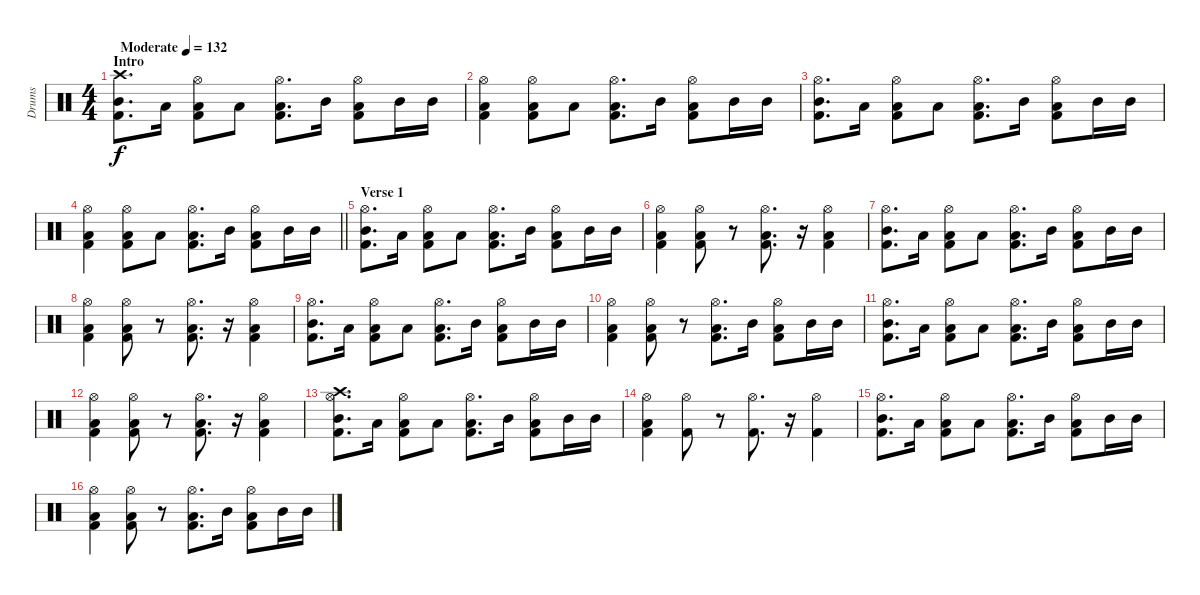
\track ("Drums" "Drums") {instrument percussion}
\staff {score}
\articulation defaults
\ts (4 4)
\section ("" "Intro")
\tempo (132 "Moderate")
\clef neutral
\ks c
("Crash high (hit)" "Mid Tom (hit)" "Kick (hit) 2").8{d dy f} "Low Tom (hit)".16 ("Hi-Hat (open)" "Low Tom (hit)" "Kick (hit) 2").8 "Low Tom (hit)".8 ("Hi-Hat (open)" "Low Tom (hit)" "Kick (hit) 2").8{d} "Mid Tom (hit)".16 ("Hi-Hat (open)" "Low Tom (hit)" "Kick (hit) 2").8 "Mid Tom (hit)".16 "Mid Tom (hit)".16 |
("Hi-Hat (open)" "Low Tom (hit)" "Kick (hit) 2").4 ("Hi-Hat (open)" "Low Tom (hit)" "Kick (hit) 2").8 "Low Tom (hit)".8 ("Hi-Hat (open)" "Low Tom (hit)" "Kick (hit) 2").8{d} "Mid Tom (hit)".16 ("Hi-Hat (open)" "Low Tom (hit)" "Kick (hit) 2").8 "Mid Tom (hit)".16 "Mid Tom (hit)".16 |
("Hi-Hat (open)" "Mid Tom (hit)" "Kick (hit) 2").8{d} "Low Tom (hit)".16 ("Hi-Hat (open)" "Low Tom (hit)" "Kick (hit) 2").8 "Low Tom (hit)".8 ("Hi-Hat (open)" "Low Tom (hit)" "Kick (hit) 2").8{d} "Mid Tom (hit)".16 ("Hi-Hat (open)" "Low Tom (hit)" "Kick (hit) 2").8 "Mid Tom (hit)".16 "Mid Tom (hit)".16 |
\barLineRight lightlight
("Hi-Hat (open)" "Low Tom (hit)" "Kick (hit) 2").4 ("Hi-Hat (open)" "Low Tom (hit)" "Kick (hit) 2").8 "Low Tom (hit)".8 ("Hi-Hat (open)" "Low Tom (hit)" "Kick (hit) 2").8{d} "Mid Tom (hit)".16 ("Hi-Hat (open)" "Low Tom (hit)" "Kick (hit) 2").8 "Mid Tom (hit)".16 "Mid Tom (hit)".16 |
\section ("" "Verse 1")
("Hi-Hat (open)" "Mid Tom (hit)" "Kick (hit) 2").8{d} "Low Tom (hit)".16 ("Hi-Hat (open)" "Low Tom (hit)" "Kick (hit) 2").8 "Low Tom (hit)".8 ("Hi-Hat (open)" "Low Tom (hit)" "Kick (hit) 2").8{d} "Mid Tom (hit)".16 ("Hi-Hat (open)" "Low Tom (hit)" "Kick (hit) 2").8 "Mid Tom (hit)".16 "Mid Tom (hit)".16 |
("Hi-Hat (open)" "Low Tom (hit)" "Kick (hit) 2").4 ("Hi-Hat (open)" "Low Tom (hit)" "Kick (hit) 2").8 r.8 ("Hi-Hat (open)" "Low Tom (hit)" "Kick (hit) 2").8{d} r.16 ("Hi-Hat (open)" "Low Tom (hit)" "Kick (hit) 2").4 |
("Hi-Hat (open)" "Mid Tom (hit)" "Kick (hit) 2").8{d} "Low Tom (hit)".16 ("Hi-Hat (open)" "Low Tom (hit)" "Kick (hit) 2").8 "Low Tom (hit)".8 ("Hi-Hat (open)" "Low Tom (hit)" "Kick (hit) 2").8{d} "Mid Tom (hit)".16 ("Hi-Hat (open)" "Low Tom (hit)" "Kick (hit) 2").8 "Mid Tom (hit)".16 "Mid Tom (hit)".16 |
("Hi-Hat (open)" "Low Tom (hit)" "Kick (hit) 2").4 ("Hi-Hat (open)" "Low Tom (hit)" "Kick (hit) 2").8 r.8 ("Hi-Hat (open)" "Low Tom (hit)" "Kick (hit) 2").8{d} r.16 ("Hi-Hat (open)" "Low Tom (hit)" "Kick (hit) 2").4 |
("Hi-Hat (open)" "Mid Tom (hit)" "Kick (hit) 2").8{d} "Low Tom (hit)".16 ("Hi-Hat (open)" "Low Tom (hit)" "Kick (hit) 2").8 "Low Tom (hit)".8 ("Hi-Hat (open)" "Low Tom (hit)" "Kick (hit) 2").8{d} "Mid Tom (hit)".16 ("Hi-Hat (open)" "Low Tom (hit)" "Kick (hit) 2").8 "Mid Tom (hit)".16 "Mid Tom (hit)".16 |
("Hi-Hat (open)" "Low Tom (hit)" "Kick (hit) 2").4 ("Hi-Hat (open)" "Low Tom (hit)" "Kick (hit) 2").8 r.8 ("Hi-Hat (open)" "Low Tom (hit)" "Kick (hit) 2").8{d} "Mid Tom (hit)".16 ("Hi-Hat (open)" "Low Tom (hit)" "Kick (hit) 2").8 "Mid Tom (hit)".16 "Mid Tom (hit)".16 |
("Hi-Hat (open)" "Mid Tom (hit)" "Kick (hit) 2").8{d} "Low Tom (hit)".16 ("Hi-Hat (open)" "Low Tom (hit)" "Kick (hit) 2").8 "Low Tom (hit)".8 ("Hi-Hat (open)" "Low Tom (hit)" "Kick (hit) 2").8{d} "Mid Tom (hit)".16 ("Hi-Hat (open)" "Low Tom (hit)" "Kick (hit) 2").8 "Mid Tom (hit)".16 "Mid Tom (hit)".16 |
("Hi-Hat (open)" "Low Tom (hit)" "Kick (hit) 2").4 ("Hi-Hat (open)" "Low Tom (hit)" "Kick (hit) 2").8 r.8 ("Hi-Hat (open)" "Low Tom (hit)" "Kick (hit) 2").8{d} r.16 ("Hi-Hat (open)" "Low Tom (hit)" "Kick (hit) 2").4 |
("Crash high (hit)" "Hi-Hat (open)" "Mid Tom (hit)" "Kick (hit) 2").8{d} "Low Tom (hit)".16 ("Hi-Hat (open)" "Low Tom (hit)" "Kick (hit) 2").8 "Low Tom (hit)".8 ("Hi-Hat (open)" "Low Tom (hit)" "Kick (hit) 2").8{d} "Mid Tom (hit)".16 ("Hi-Hat (open)" "Low Tom (hit)" "Kick (hit) 2").8 "Mid Tom (hit)".16 "Mid Tom (hit)".16 |
("Hi-Hat (open)" "Low Tom (hit)" "Kick (hit) 2").4 ("Hi-Hat (open)" "Kick (hit) 2").8 r.8 ("Hi-Hat (open)" "Kick (hit) 2").8{d} r.16 ("Hi-Hat (open)" "Kick (hit) 2").4 |
("Hi-Hat (open)" "Mid Tom (hit)" "Kick (hit) 2").8{d} "Low Tom (hit)".16 ("Hi-Hat (open)" "Low Tom (hit)" "Kick (hit) 2").8 "Low Tom (hit)".8 ("Hi-Hat (open)" "Low Tom (hit)" "Kick (hit) 2").8{d} "Mid Tom (hit)".16 ("Hi-Hat (open)" "Low Tom (hit)" "Kick (hit) 2").8 "Mid Tom (hit)".16 "Mid Tom (hit)".16 |
("Hi-Hat (open)" "Low Tom (hit)" "Kick (hit) 2").4 ("Hi-Hat (open)" "Low Tom (hit)" "Kick (hit) 2").8 r.8 ("Hi-Hat (open)" "Low Tom (hit)" "Kick (hit) 2").8{d} "Mid Tom (hit)".16 ("Hi-Hat (open)" "Low Tom (hit)" "Kick (hit) 2").8 "Mid Tom (hit)".16 "Mid Tom (hit)".16
